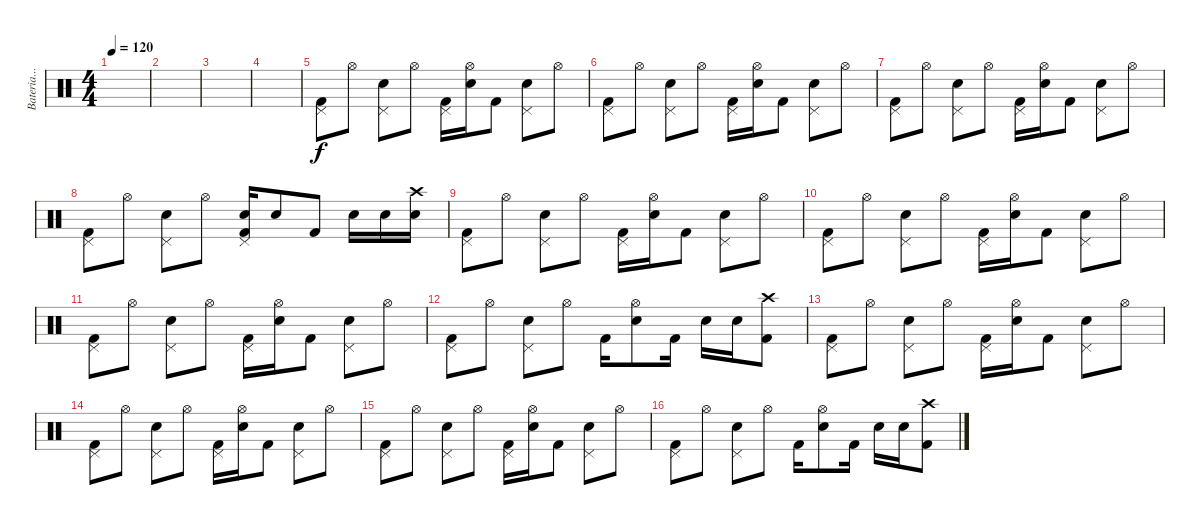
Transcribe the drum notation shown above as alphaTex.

\track ("Bateria...xD" "Bateria...") {instrument percussion}
\staff {score}
\articulation defaults
\ts (4 4)
\tempo 120
\clef neutral
\ks c
|
|
|
|
("Pedal Hi-Hat (hit)" "Kick (hit) 2").8 "Hi-Hat (open)".8 ("Pedal Hi-Hat (hit)" "Electric Snare (hit)").8 "Hi-Hat (open)".8 ("Pedal Hi-Hat (hit)" "Kick (hit) 2").16 ("Hi-Hat (open)" "Electric Snare (hit)").16 "Kick (hit) 2".8 ("Pedal Hi-Hat (hit)" "Electric Snare (hit)").8 "Hi-Hat (open)".8 |
("Pedal Hi-Hat (hit)" "Kick (hit) 2").8 "Hi-Hat (open)".8 ("Pedal Hi-Hat (hit)" "Electric Snare (hit)").8 "Hi-Hat (open)".8 ("Pedal Hi-Hat (hit)" "Kick (hit) 2").16 ("Hi-Hat (open)" "Electric Snare (hit)").16 "Kick (hit) 2".8 ("Pedal Hi-Hat (hit)" "Electric Snare (hit)").8 "Hi-Hat (open)".8 |
("Pedal Hi-Hat (hit)" "Kick (hit) 2").8 "Hi-Hat (open)".8 ("Pedal Hi-Hat (hit)" "Electric Snare (hit)").8 "Hi-Hat (open)".8 ("Pedal Hi-Hat (hit)" "Kick (hit) 2").16 ("Hi-Hat (open)" "Electric Snare (hit)").16 "Kick (hit) 2".8 ("Pedal Hi-Hat (hit)" "Electric Snare (hit)").8 "Hi-Hat (open)".8 |
("Pedal Hi-Hat (hit)" "Kick (hit) 2").8 "Hi-Hat (open)".8 ("Pedal Hi-Hat (hit)" "Electric Snare (hit)").8 "Hi-Hat (open)".8 ("Pedal Hi-Hat (hit)" "Electric Snare (hit)" "Kick (hit) 2").16 "Electric Snare (hit)".8 "Kick (hit) 2".8 "Electric Snare (hit)".16 "Electric Snare (hit)".16 ("Crash high (hit)" "Electric Snare (hit)").16 |
("Pedal Hi-Hat (hit)" "Kick (hit) 2").8 "Hi-Hat (open)".8 ("Pedal Hi-Hat (hit)" "Electric Snare (hit)").8 "Hi-Hat (open)".8 ("Pedal Hi-Hat (hit)" "Kick (hit) 2").16 ("Hi-Hat (open)" "Electric Snare (hit)").16 "Kick (hit) 2".8 ("Pedal Hi-Hat (hit)" "Electric Snare (hit)").8 "Hi-Hat (open)".8 |
("Pedal Hi-Hat (hit)" "Kick (hit) 2").8 "Hi-Hat (open)".8 ("Pedal Hi-Hat (hit)" "Electric Snare (hit)").8 "Hi-Hat (open)".8 ("Pedal Hi-Hat (hit)" "Kick (hit) 2").16 ("Hi-Hat (open)" "Electric Snare (hit)").16 "Kick (hit) 2".8 ("Pedal Hi-Hat (hit)" "Electric Snare (hit)").8 "Hi-Hat (open)".8 |
("Pedal Hi-Hat (hit)" "Kick (hit) 2").8 "Hi-Hat (open)".8 ("Pedal Hi-Hat (hit)" "Electric Snare (hit)").8 "Hi-Hat (open)".8 ("Pedal Hi-Hat (hit)" "Kick (hit) 2").16 ("Hi-Hat (open)" "Electric Snare (hit)").16 "Kick (hit) 2".8 ("Pedal Hi-Hat (hit)" "Electric Snare (hit)").8 "Hi-Hat (open)".8 |
("Pedal Hi-Hat (hit)" "Kick (hit) 2").8 "Hi-Hat (open)".8 ("Pedal Hi-Hat (hit)" "Electric Snare (hit)").8 "Hi-Hat (open)".8 "Kick (hit) 2".16 ("Hi-Hat (open)" "Electric Snare (hit)").8 "Kick (hit) 2".16 "Electric Snare (hit)".16 "Electric Snare (hit)".16 ("Crash high (hit)" "Kick (hit) 2").8 |
("Pedal Hi-Hat (hit)" "Kick (hit) 2").8 "Hi-Hat (open)".8 ("Pedal Hi-Hat (hit)" "Electric Snare (hit)").8 "Hi-Hat (open)".8 ("Pedal Hi-Hat (hit)" "Kick (hit) 2").16 ("Hi-Hat (open)" "Electric Snare (hit)").16 "Kick (hit) 2".8 ("Pedal Hi-Hat (hit)" "Electric Snare (hit)").8 "Hi-Hat (open)".8 |
("Pedal Hi-Hat (hit)" "Kick (hit) 2").8 "Hi-Hat (open)".8 ("Pedal Hi-Hat (hit)" "Electric Snare (hit)").8 "Hi-Hat (open)".8 ("Pedal Hi-Hat (hit)" "Kick (hit) 2").16 ("Hi-Hat (open)" "Electric Snare (hit)").16 "Kick (hit) 2".8 ("Pedal Hi-Hat (hit)" "Electric Snare (hit)").8 "Hi-Hat (open)".8 |
("Pedal Hi-Hat (hit)" "Kick (hit) 2").8 "Hi-Hat (open)".8 ("Pedal Hi-Hat (hit)" "Electric Snare (hit)").8 "Hi-Hat (open)".8 ("Pedal Hi-Hat (hit)" "Kick (hit) 2").16 ("Hi-Hat (open)" "Electric Snare (hit)").16 "Kick (hit) 2".8 ("Pedal Hi-Hat (hit)" "Electric Snare (hit)").8 "Hi-Hat (open)".8 |
("Pedal Hi-Hat (hit)" "Kick (hit) 2").8 "Hi-Hat (open)".8 ("Pedal Hi-Hat (hit)" "Electric Snare (hit)").8 "Hi-Hat (open)".8 "Kick (hit) 2".16 ("Hi-Hat (open)" "Electric Snare (hit)").8 "Kick (hit) 2".16 "Electric Snare (hit)".16 "Electric Snare (hit)".16 ("Crash high (hit)" "Kick (hit) 2").8
